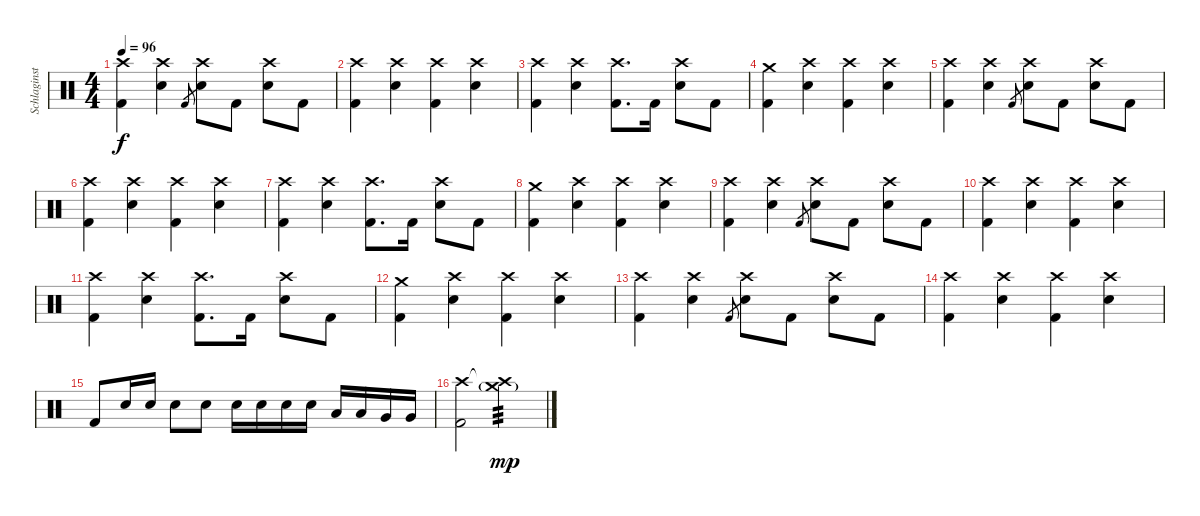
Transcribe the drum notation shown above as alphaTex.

\track ("Schlaginstrumente - Auswahl" "Schlaginst") {instrument percussion}
\staff {score}
\articulation defaults
\ts (4 4)
\tempo 96
\clef neutral
\ks c
("Crash high (hit)" "Kick (hit) 2").4{dy f} ("Crash high (hit)" "Electric Snare (hit)").4 "Kick (hit) 2".8{gr} ("Crash high (hit)" "Electric Snare (hit)").8 "Kick (hit) 2".8 ("Crash high (hit)" "Electric Snare (hit)").8 "Kick (hit) 2".8 |
("Crash high (hit)" "Kick (hit) 2").4 ("Crash high (hit)" "Electric Snare (hit)").4 ("Crash high (hit)" "Kick (hit) 2").4 ("Crash high (hit)" "Electric Snare (hit)").4 |
("Crash high (hit)" "Kick (hit) 2").4 ("Crash high (hit)" "Electric Snare (hit)").4 ("Crash high (hit)" "Kick (hit) 2").8{d} "Kick (hit) 2".16 ("Crash high (hit)" "Electric Snare (hit)").8 "Kick (hit) 2".8 |
("Crash medium (hit)" "Kick (hit) 2").4 ("Crash high (hit)" "Electric Snare (hit)").4 ("Crash high (hit)" "Kick (hit) 2").4 ("Crash high (hit)" "Electric Snare (hit)").4 |
("Crash high (hit)" "Kick (hit) 2").4 ("Crash high (hit)" "Electric Snare (hit)").4 "Kick (hit) 2".8{gr} ("Crash high (hit)" "Electric Snare (hit)").8 "Kick (hit) 2".8 ("Crash high (hit)" "Electric Snare (hit)").8 "Kick (hit) 2".8 |
("Crash high (hit)" "Kick (hit) 2").4 ("Crash high (hit)" "Electric Snare (hit)").4 ("Crash high (hit)" "Kick (hit) 2").4 ("Crash high (hit)" "Electric Snare (hit)").4 |
("Crash high (hit)" "Kick (hit) 2").4 ("Crash high (hit)" "Electric Snare (hit)").4 ("Crash high (hit)" "Kick (hit) 2").8{d} "Kick (hit) 2".16 ("Crash high (hit)" "Electric Snare (hit)").8 "Kick (hit) 2".8 |
("Crash medium (hit)" "Kick (hit) 2").4 ("Crash high (hit)" "Electric Snare (hit)").4 ("Crash high (hit)" "Kick (hit) 2").4 ("Crash high (hit)" "Electric Snare (hit)").4 |
("Crash high (hit)" "Kick (hit) 2").4 ("Crash high (hit)" "Electric Snare (hit)").4 "Kick (hit) 2".8{gr} ("Crash high (hit)" "Electric Snare (hit)").8 "Kick (hit) 2".8 ("Crash high (hit)" "Electric Snare (hit)").8 "Kick (hit) 2".8 |
("Crash high (hit)" "Kick (hit) 2").4 ("Crash high (hit)" "Electric Snare (hit)").4 ("Crash high (hit)" "Kick (hit) 2").4 ("Crash high (hit)" "Electric Snare (hit)").4 |
("Crash high (hit)" "Kick (hit) 2").4 ("Crash high (hit)" "Electric Snare (hit)").4 ("Crash high (hit)" "Kick (hit) 2").8{d} "Kick (hit) 2".16 ("Crash high (hit)" "Electric Snare (hit)").8 "Kick (hit) 2".8 |
("Crash medium (hit)" "Kick (hit) 2").4 ("Crash high (hit)" "Electric Snare (hit)").4 ("Crash high (hit)" "Kick (hit) 2").4 ("Crash high (hit)" "Electric Snare (hit)").4 |
("Crash high (hit)" "Kick (hit) 2").4 ("Crash high (hit)" "Electric Snare (hit)").4 "Kick (hit) 2".8{gr} ("Crash high (hit)" "Electric Snare (hit)").8 "Kick (hit) 2".8 ("Crash high (hit)" "Electric Snare (hit)").8 "Kick (hit) 2".8 |
("Crash high (hit)" "Kick (hit) 2").4 ("Crash high (hit)" "Electric Snare (hit)").4 ("Crash high (hit)" "Kick (hit) 2").4 ("Crash high (hit)" "Electric Snare (hit)").4 |
"Kick (hit) 2".8 "Electric Snare (hit)".16 "Electric Snare (hit)".16 "Electric Snare (hit)".8 "Electric Snare (hit)".8 "Electric Snare (hit)".16 "Electric Snare (hit)".16 "Electric Snare (hit)".16 "Electric Snare (hit)".16 "Low Tom (hit)".16 "Low Tom (hit)".16 "Very Low Tom (hit)".16 "Very Low Tom (hit)".16 |
("Crash high (hit)" "Kick (hit) 2").2 ("Crash high (hit)"{t} "Crash medium (hit)"{g}).2{tp 3 dy mp}
